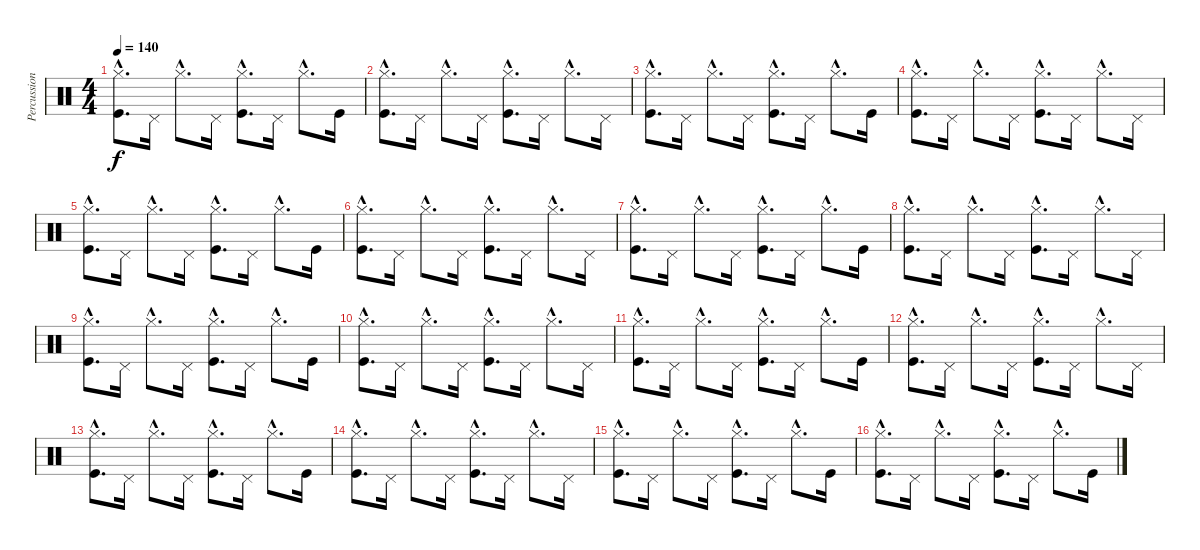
\track ("Percussions" "Percussion") {instrument percussion}
\staff {score}
\articulation defaults
\ts (4 4)
\tempo 140
\clef neutral
\ks c
("Hi-Hat (closed)"{hac} "Kick (hit)"{hac}).8{d dy f} "Pedal Hi-Hat (hit)".16 "Hi-Hat (closed)"{hac}.8{d} "Pedal Hi-Hat (hit)".16 ("Hi-Hat (closed)"{hac} "Kick (hit)"{hac}).8{d} "Pedal Hi-Hat (hit)".16 "Hi-Hat (closed)"{hac}.8{d} "Kick (hit)".16 |
("Hi-Hat (closed)"{hac} "Kick (hit)"{hac}).8{d} "Pedal Hi-Hat (hit)".16 "Hi-Hat (closed)"{hac}.8{d} "Pedal Hi-Hat (hit)".16 ("Hi-Hat (closed)"{hac} "Kick (hit)"{hac}).8{d} "Pedal Hi-Hat (hit)".16 "Hi-Hat (closed)"{hac}.8{d} "Pedal Hi-Hat (hit)".16 |
("Hi-Hat (closed)"{hac} "Kick (hit)"{hac}).8{d} "Pedal Hi-Hat (hit)".16 "Hi-Hat (closed)"{hac}.8{d} "Pedal Hi-Hat (hit)".16 ("Hi-Hat (closed)"{hac} "Kick (hit)"{hac}).8{d} "Pedal Hi-Hat (hit)".16 "Hi-Hat (closed)"{hac}.8{d} "Kick (hit)".16 |
("Hi-Hat (closed)"{hac} "Kick (hit)"{hac}).8{d} "Pedal Hi-Hat (hit)".16 "Hi-Hat (closed)"{hac}.8{d} "Pedal Hi-Hat (hit)".16 ("Hi-Hat (closed)"{hac} "Kick (hit)"{hac}).8{d} "Pedal Hi-Hat (hit)".16 "Hi-Hat (closed)"{hac}.8{d} "Pedal Hi-Hat (hit)".16 |
("Hi-Hat (closed)"{hac} "Kick (hit)"{hac}).8{d} "Pedal Hi-Hat (hit)".16 "Hi-Hat (closed)"{hac}.8{d} "Pedal Hi-Hat (hit)".16 ("Hi-Hat (closed)"{hac} "Kick (hit)"{hac}).8{d} "Pedal Hi-Hat (hit)".16 "Hi-Hat (closed)"{hac}.8{d} "Kick (hit)".16 |
("Hi-Hat (closed)"{hac} "Kick (hit)"{hac}).8{d} "Pedal Hi-Hat (hit)".16 "Hi-Hat (closed)"{hac}.8{d} "Pedal Hi-Hat (hit)".16 ("Hi-Hat (closed)"{hac} "Kick (hit)"{hac}).8{d} "Pedal Hi-Hat (hit)".16 "Hi-Hat (closed)"{hac}.8{d} "Pedal Hi-Hat (hit)".16 |
("Hi-Hat (closed)"{hac} "Kick (hit)"{hac}).8{d} "Pedal Hi-Hat (hit)".16 "Hi-Hat (closed)"{hac}.8{d} "Pedal Hi-Hat (hit)".16 ("Hi-Hat (closed)"{hac} "Kick (hit)"{hac}).8{d} "Pedal Hi-Hat (hit)".16 "Hi-Hat (closed)"{hac}.8{d} "Kick (hit)".16 |
("Hi-Hat (closed)"{hac} "Kick (hit)"{hac}).8{d} "Pedal Hi-Hat (hit)".16 "Hi-Hat (closed)"{hac}.8{d} "Pedal Hi-Hat (hit)".16 ("Hi-Hat (closed)"{hac} "Kick (hit)"{hac}).8{d} "Pedal Hi-Hat (hit)".16 "Hi-Hat (closed)"{hac}.8{d} "Pedal Hi-Hat (hit)".16 |
("Hi-Hat (closed)"{hac} "Kick (hit)"{hac}).8{d} "Pedal Hi-Hat (hit)".16 "Hi-Hat (closed)"{hac}.8{d} "Pedal Hi-Hat (hit)".16 ("Hi-Hat (closed)"{hac} "Kick (hit)"{hac}).8{d} "Pedal Hi-Hat (hit)".16 "Hi-Hat (closed)"{hac}.8{d} "Kick (hit)".16 |
("Hi-Hat (closed)"{hac} "Kick (hit)"{hac}).8{d} "Pedal Hi-Hat (hit)".16 "Hi-Hat (closed)"{hac}.8{d} "Pedal Hi-Hat (hit)".16 ("Hi-Hat (closed)"{hac} "Kick (hit)"{hac}).8{d} "Pedal Hi-Hat (hit)".16 "Hi-Hat (closed)"{hac}.8{d} "Pedal Hi-Hat (hit)".16 |
("Hi-Hat (closed)"{hac} "Kick (hit)"{hac}).8{d} "Pedal Hi-Hat (hit)".16 "Hi-Hat (closed)"{hac}.8{d} "Pedal Hi-Hat (hit)".16 ("Hi-Hat (closed)"{hac} "Kick (hit)"{hac}).8{d} "Pedal Hi-Hat (hit)".16 "Hi-Hat (closed)"{hac}.8{d} "Kick (hit)".16 |
("Hi-Hat (closed)"{hac} "Kick (hit)"{hac}).8{d} "Pedal Hi-Hat (hit)".16 "Hi-Hat (closed)"{hac}.8{d} "Pedal Hi-Hat (hit)".16 ("Hi-Hat (closed)"{hac} "Kick (hit)"{hac}).8{d} "Pedal Hi-Hat (hit)".16 "Hi-Hat (closed)"{hac}.8{d} "Pedal Hi-Hat (hit)".16 |
("Hi-Hat (closed)"{hac} "Kick (hit)"{hac}).8{d} "Pedal Hi-Hat (hit)".16 "Hi-Hat (closed)"{hac}.8{d} "Pedal Hi-Hat (hit)".16 ("Hi-Hat (closed)"{hac} "Kick (hit)"{hac}).8{d} "Pedal Hi-Hat (hit)".16 "Hi-Hat (closed)"{hac}.8{d} "Kick (hit)".16 |
("Hi-Hat (closed)"{hac} "Kick (hit)"{hac}).8{d} "Pedal Hi-Hat (hit)".16 "Hi-Hat (closed)"{hac}.8{d} "Pedal Hi-Hat (hit)".16 ("Hi-Hat (closed)"{hac} "Kick (hit)"{hac}).8{d} "Pedal Hi-Hat (hit)".16 "Hi-Hat (closed)"{hac}.8{d} "Pedal Hi-Hat (hit)".16 |
("Hi-Hat (closed)"{hac} "Kick (hit)"{hac}).8{d} "Pedal Hi-Hat (hit)".16 "Hi-Hat (closed)"{hac}.8{d} "Pedal Hi-Hat (hit)".16 ("Hi-Hat (closed)"{hac} "Kick (hit)"{hac}).8{d} "Pedal Hi-Hat (hit)".16 "Hi-Hat (closed)"{hac}.8{d} "Kick (hit)".16 |
("Hi-Hat (closed)"{hac} "Kick (hit)"{hac}).8{d} "Pedal Hi-Hat (hit)".16 "Hi-Hat (closed)"{hac}.8{d} "Pedal Hi-Hat (hit)".16 ("Hi-Hat (closed)"{hac} "Kick (hit)"{hac}).8{d} "Pedal Hi-Hat (hit)".16 "Hi-Hat (closed)"{hac}.8{d} "Kick (hit)".16
